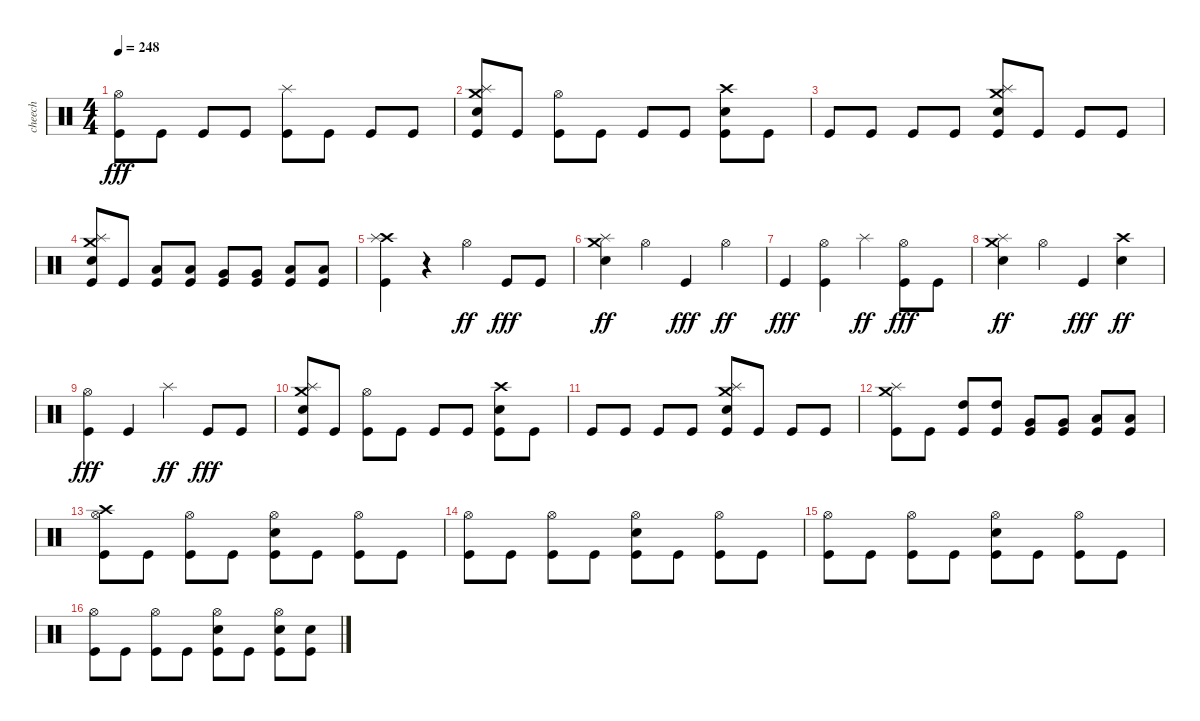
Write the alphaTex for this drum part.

\track ("cheech" "cheech") {instrument percussion}
\staff {score}
\articulation defaults
\ts (4 4)
\tempo 248
\clef neutral
\ks c
("Hi-Hat (open)" "Kick (hit)").8{dy fff} "Kick (hit)".8 "Kick (hit)".8 "Kick (hit)".8 ("Splash (hit)" "Kick (hit)").8 "Kick (hit)".8 "Kick (hit)".8 "Kick (hit)".8 |
("Crash medium (hit)" "Splash (hit)" "Electric Snare (hit)" "Kick (hit)").8 "Kick (hit)".8 ("Hi-Hat (open)" "Kick (hit)").8 "Kick (hit)".8 "Kick (hit)".8 "Kick (hit)".8 ("Crash high (hit)" "Electric Snare (hit)" "Kick (hit)").8 "Kick (hit)".8 |
"Kick (hit)".8 "Kick (hit)".8 "Kick (hit)".8 "Kick (hit)".8 ("Crash medium (hit)" "Splash (hit)" "Electric Snare (hit)" "Kick (hit)").8 "Kick (hit)".8 "Kick (hit)".8 "Kick (hit)".8 |
("Crash medium (hit)" "Splash (hit)" "Electric Snare (hit)" "Kick (hit)").8 "Kick (hit)".8 ("Low Tom (hit)" "Kick (hit)").8 ("Low Tom (hit)" "Kick (hit)").8 ("Very Low Tom (hit)" "Kick (hit)").8 ("Very Low Tom (hit)" "Kick (hit)").8 ("Low Floor Tom (hit)" "Kick (hit)").8 ("Low Floor Tom (hit)" "Kick (hit)").8 |
("Crash high (hit)" "Splash (hit)" "Kick (hit)").4 r.4 "Hi-Hat (open)".4{dy ff} "Kick (hit)".8{dy fff} "Kick (hit)".8 |
("Crash medium (hit)" "Splash (hit)" "Electric Snare (hit)").4{dy ff} "Hi-Hat (open)".4 "Kick (hit)".4{dy fff} "Hi-Hat (open)".4{dy ff} |
"Kick (hit)".4{dy fff} ("Hi-Hat (open)" "Kick (hit)").4 "Splash (hit)".4{dy ff} ("Hi-Hat (open)" "Kick (hit)").8{dy fff} "Kick (hit)".8 |
("Crash medium (hit)" "Splash (hit)" "Electric Snare (hit)").4{dy ff} "Hi-Hat (open)".4 "Kick (hit)".4{dy fff} ("Crash high (hit)" "Electric Snare (hit)").4{dy ff} |
("Hi-Hat (open)" "Kick (hit)").4{dy fff} "Kick (hit)".4 "Splash (hit)".4{dy ff} "Kick (hit)".8{dy fff} "Kick (hit)".8 |
("Crash medium (hit)" "Splash (hit)" "Electric Snare (hit)" "Kick (hit)").8 "Kick (hit)".8 ("Hi-Hat (open)" "Kick (hit)").8 "Kick (hit)".8 "Kick (hit)".8 "Kick (hit)".8 ("Crash high (hit)" "Electric Snare (hit)" "Kick (hit)").8 "Kick (hit)".8 |
"Kick (hit)".8 "Kick (hit)".8 "Kick (hit)".8 "Kick (hit)".8 ("Crash medium (hit)" "Splash (hit)" "Electric Snare (hit)" "Kick (hit)").8 "Kick (hit)".8 "Kick (hit)".8 "Kick (hit)".8 |
("Crash medium (hit)" "Splash (hit)" "Kick (hit)").8 "Kick (hit)".8 ("High Tom (hit)" "Kick (hit)").8 ("High Tom (hit)" "Kick (hit)").8 ("Very Low Tom (hit)" "Kick (hit)").8 ("Very Low Tom (hit)" "Kick (hit)").8 ("Low Floor Tom (hit)" "Kick (hit)").8 ("Low Floor Tom (hit)" "Kick (hit)").8 |
("Hi-Hat (open)" "Crash high (hit)" "Kick (hit)").8 "Kick (hit)".8 ("Hi-Hat (open)" "Kick (hit)").8 "Kick (hit)".8 ("Hi-Hat (open)" "Electric Snare (hit)" "Kick (hit)").8 "Kick (hit)".8 ("Hi-Hat (open)" "Kick (hit)").8 "Kick (hit)".8 |
("Hi-Hat (open)" "Kick (hit)").8 "Kick (hit)".8 ("Hi-Hat (open)" "Kick (hit)").8 "Kick (hit)".8 ("Hi-Hat (open)" "Electric Snare (hit)" "Kick (hit)").8 "Kick (hit)".8 ("Hi-Hat (open)" "Kick (hit)").8 "Kick (hit)".8 |
("Hi-Hat (open)" "Kick (hit)").8 "Kick (hit)".8 ("Hi-Hat (open)" "Kick (hit)").8 "Kick (hit)".8 ("Hi-Hat (open)" "Electric Snare (hit)" "Kick (hit)").8 "Kick (hit)".8 ("Hi-Hat (open)" "Kick (hit)").8 "Kick (hit)".8 |
("Hi-Hat (open)" "Kick (hit)").8 "Kick (hit)".8 ("Hi-Hat (open)" "Kick (hit)").8 "Kick (hit)".8 ("Hi-Hat (open)" "Electric Snare (hit)" "Kick (hit)").8 "Kick (hit)".8 ("Hi-Hat (open)" "Electric Snare (hit)" "Kick (hit)").8 ("Electric Snare (hit)" "Kick (hit)").8
